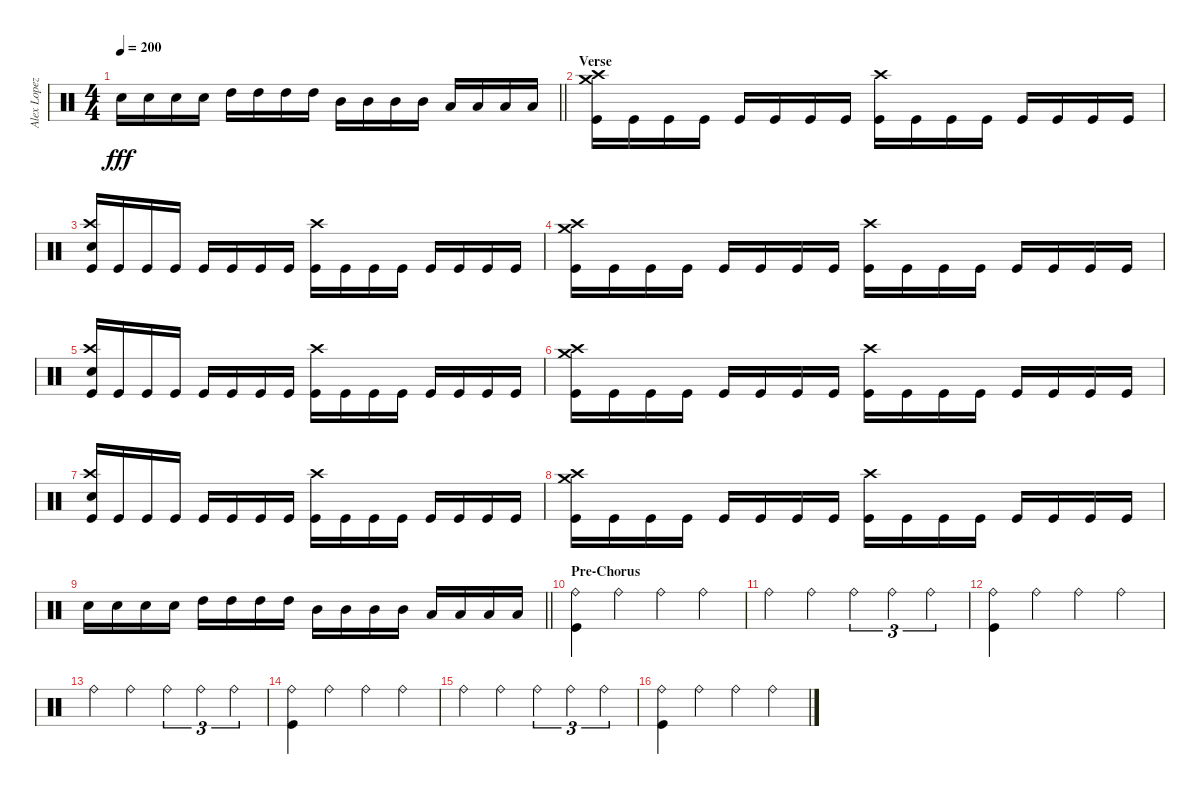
\track ("Alex Lopez" "Alex Lopez") {instrument percussion}
\staff {score}
\articulation defaults
\ts (4 4)
\tempo 200
\clef neutral
\barLineRight lightlight
\ks c "Snare (hit) 2".16{dy fff} "Snare (hit) 2".16 "Snare (hit) 2".16 "Snare (hit) 2".16 "High Tom (hit)".16 "High Tom (hit)".16 "High Tom (hit)".16 "High Tom (hit)".16 "Mid Tom (hit)".16 "Mid Tom (hit)".16 "Mid Tom (hit)".16 "Mid Tom (hit)".16 "Low Tom (hit)".16 "Low Tom (hit)".16 "Low Tom (hit)".16 "Low Tom (hit)".16
|
\section ("" "Verse")
("Crash high (hit)" "Crash medium (hit)" "Kick (hit)").16 "Kick (hit)".16 "Kick (hit)".16 "Kick (hit)".16 "Kick (hit)".16 "Kick (hit)".16 "Kick (hit)".16 "Kick (hit)".16 ("Crash high (hit)" "Kick (hit)").16 "Kick (hit)".16 "Kick (hit)".16 "Kick (hit)".16 "Kick (hit)".16 "Kick (hit)".16 "Kick (hit)".16 "Kick (hit)".16 |
("Crash high (hit)" "Snare (hit) 2" "Kick (hit)").16 "Kick (hit)".16 "Kick (hit)".16 "Kick (hit)".16 "Kick (hit)".16 "Kick (hit)".16 "Kick (hit)".16 "Kick (hit)".16 ("Crash high (hit)" "Kick (hit)").16 "Kick (hit)".16 "Kick (hit)".16 "Kick (hit)".16 "Kick (hit)".16 "Kick (hit)".16 "Kick (hit)".16 "Kick (hit)".16 |
("Crash high (hit)" "Crash medium (hit)" "Kick (hit)").16 "Kick (hit)".16 "Kick (hit)".16 "Kick (hit)".16 "Kick (hit)".16 "Kick (hit)".16 "Kick (hit)".16 "Kick (hit)".16 ("Crash high (hit)" "Kick (hit)").16 "Kick (hit)".16 "Kick (hit)".16 "Kick (hit)".16 "Kick (hit)".16 "Kick (hit)".16 "Kick (hit)".16 "Kick (hit)".16 |
("Crash high (hit)" "Snare (hit) 2" "Kick (hit)").16 "Kick (hit)".16 "Kick (hit)".16 "Kick (hit)".16 "Kick (hit)".16 "Kick (hit)".16 "Kick (hit)".16 "Kick (hit)".16 ("Crash high (hit)" "Kick (hit)").16 "Kick (hit)".16 "Kick (hit)".16 "Kick (hit)".16 "Kick (hit)".16 "Kick (hit)".16 "Kick (hit)".16 "Kick (hit)".16 |
("Crash high (hit)" "Crash medium (hit)" "Kick (hit)").16 "Kick (hit)".16 "Kick (hit)".16 "Kick (hit)".16 "Kick (hit)".16 "Kick (hit)".16 "Kick (hit)".16 "Kick (hit)".16 ("Crash high (hit)" "Kick (hit)").16 "Kick (hit)".16 "Kick (hit)".16 "Kick (hit)".16 "Kick (hit)".16 "Kick (hit)".16 "Kick (hit)".16 "Kick (hit)".16 |
("Crash high (hit)" "Snare (hit) 2" "Kick (hit)").16 "Kick (hit)".16 "Kick (hit)".16 "Kick (hit)".16 "Kick (hit)".16 "Kick (hit)".16 "Kick (hit)".16 "Kick (hit)".16 ("Crash high (hit)" "Kick (hit)").16 "Kick (hit)".16 "Kick (hit)".16 "Kick (hit)".16 "Kick (hit)".16 "Kick (hit)".16 "Kick (hit)".16 "Kick (hit)".16 |
("Crash high (hit)" "Crash medium (hit)" "Kick (hit)").16 "Kick (hit)".16 "Kick (hit)".16 "Kick (hit)".16 "Kick (hit)".16 "Kick (hit)".16 "Kick (hit)".16 "Kick (hit)".16 ("Crash high (hit)" "Kick (hit)").16 "Kick (hit)".16 "Kick (hit)".16 "Kick (hit)".16 "Kick (hit)".16 "Kick (hit)".16 "Kick (hit)".16 "Kick (hit)".16 |
\barLineRight lightlight "Snare (hit) 2".16 "Snare (hit) 2".16 "Snare (hit) 2".16 "Snare (hit) 2".16 "High Tom (hit)".16 "High Tom (hit)".16 "High Tom (hit)".16 "High Tom (hit)".16 "Mid Tom (hit)".16 "Mid Tom (hit)".16 "Mid Tom (hit)".16 "Mid Tom (hit)".16 "Low Tom (hit)".16 "Low Tom (hit)".16 "Low Tom (hit)".16 "Low Tom (hit)".16
|
\section ("" "Pre-Chorus")
("Ride (bell)" "Kick (hit)").4 "Ride (bell)".4 "Ride (bell)".4 "Ride (bell)".4 |
"Ride (bell)".4 "Ride (bell)".4 "Ride (bell)".4{tu (3 2)} "Ride (bell)".4{tu (3 2)} "Ride (bell)".4{tu (3 2)} |
("Ride (bell)" "Kick (hit)").4 "Ride (bell)".4 "Ride (bell)".4 "Ride (bell)".4 |
"Ride (bell)".4 "Ride (bell)".4 "Ride (bell)".4{tu (3 2)} "Ride (bell)".4{tu (3 2)} "Ride (bell)".4{tu (3 2)} |
("Ride (bell)" "Kick (hit)").4 "Ride (bell)".4 "Ride (bell)".4 "Ride (bell)".4 |
"Ride (bell)".4 "Ride (bell)".4 "Ride (bell)".4{tu (3 2)} "Ride (bell)".4{tu (3 2)} "Ride (bell)".4{tu (3 2)} |
("Ride (bell)" "Kick (hit)").4 "Ride (bell)".4 "Ride (bell)".4 "Ride (bell)".4
